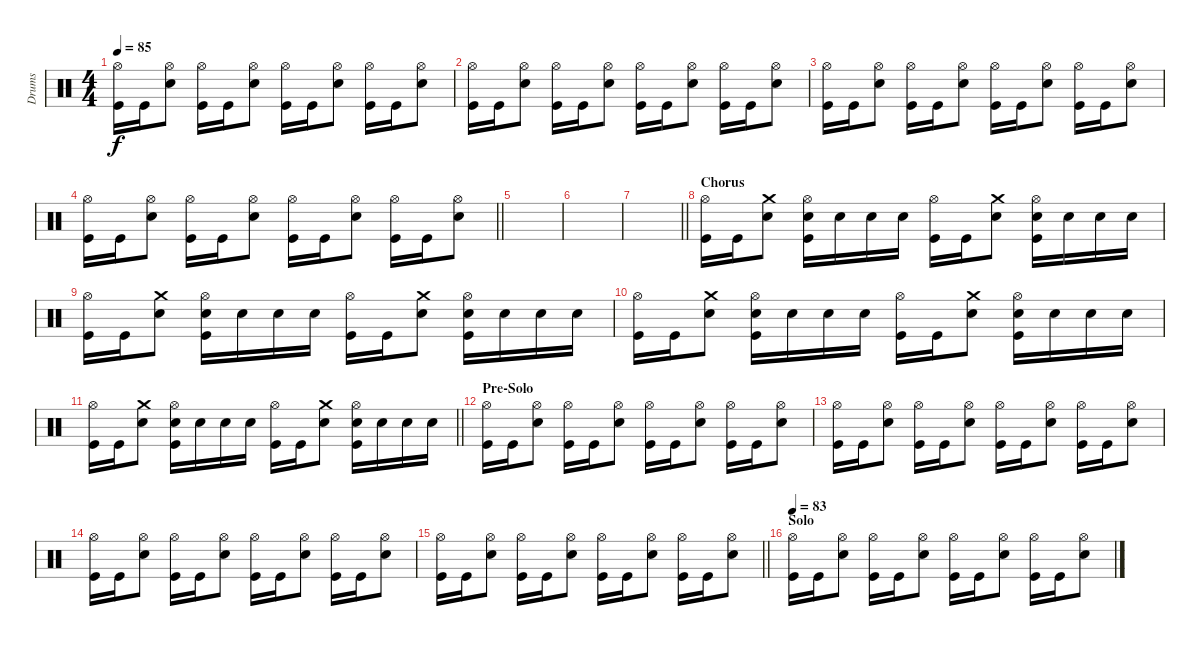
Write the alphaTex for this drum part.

\track ("Drums" "Drums") {instrument percussion}
\staff {score}
\articulation defaults
\ts (4 4)
\tempo 85
\clef neutral
\ks c
("Hi-Hat (open)" "Kick (hit)").16{dy f} "Kick (hit)".16 ("Hi-Hat (open)" "Snare (hit) 2").8 ("Hi-Hat (open)" "Kick (hit)").16 "Kick (hit)".16 ("Hi-Hat (open)" "Snare (hit) 2").8 ("Hi-Hat (open)" "Kick (hit)").16 "Kick (hit)".16 ("Hi-Hat (open)" "Snare (hit) 2").8 ("Hi-Hat (open)" "Kick (hit)").16 "Kick (hit)".16 ("Hi-Hat (open)" "Snare (hit) 2").8 |
("Hi-Hat (open)" "Kick (hit)").16 "Kick (hit)".16 ("Hi-Hat (open)" "Snare (hit) 2").8 ("Hi-Hat (open)" "Kick (hit)").16 "Kick (hit)".16 ("Hi-Hat (open)" "Snare (hit) 2").8 ("Hi-Hat (open)" "Kick (hit)").16 "Kick (hit)".16 ("Hi-Hat (open)" "Snare (hit) 2").8 ("Hi-Hat (open)" "Kick (hit)").16 "Kick (hit)".16 ("Hi-Hat (open)" "Snare (hit) 2").8 |
("Hi-Hat (open)" "Kick (hit)").16 "Kick (hit)".16 ("Hi-Hat (open)" "Snare (hit) 2").8 ("Hi-Hat (open)" "Kick (hit)").16 "Kick (hit)".16 ("Hi-Hat (open)" "Snare (hit) 2").8 ("Hi-Hat (open)" "Kick (hit)").16 "Kick (hit)".16 ("Hi-Hat (open)" "Snare (hit) 2").8 ("Hi-Hat (open)" "Kick (hit)").16 "Kick (hit)".16 ("Hi-Hat (open)" "Snare (hit) 2").8 |
\barLineRight lightlight
("Hi-Hat (open)" "Kick (hit)").16 "Kick (hit)".16 ("Hi-Hat (open)" "Snare (hit) 2").8 ("Hi-Hat (open)" "Kick (hit)").16 "Kick (hit)".16 ("Hi-Hat (open)" "Snare (hit) 2").8 ("Hi-Hat (open)" "Kick (hit)").16 "Kick (hit)".16 ("Hi-Hat (open)" "Snare (hit) 2").8 ("Hi-Hat (open)" "Kick (hit)").16 "Kick (hit)".16 ("Hi-Hat (open)" "Snare (hit) 2").8 |
\section ("" "")
|
|
\barLineRight lightlight
|
\section ("" "Chorus")
("Hi-Hat (open)" "Kick (hit)").16 "Kick (hit)".16 ("Crash medium (hit)" "Snare (hit) 2").8 ("Hi-Hat (open)" "Snare (hit) 2" "Kick (hit)").16 "Snare (hit) 2".16 "Snare (hit) 2".16 "Snare (hit) 2".16 ("Hi-Hat (open)" "Kick (hit)").16 "Kick (hit)".16 ("Crash medium (hit)" "Snare (hit) 2").8 ("Hi-Hat (open)" "Snare (hit) 2" "Kick (hit)").16 "Snare (hit) 2".16 "Snare (hit) 2".16 "Snare (hit) 2".16 |
("Hi-Hat (open)" "Kick (hit)").16 "Kick (hit)".16 ("Crash medium (hit)" "Snare (hit) 2").8 ("Hi-Hat (open)" "Snare (hit) 2" "Kick (hit)").16 "Snare (hit) 2".16 "Snare (hit) 2".16 "Snare (hit) 2".16 ("Hi-Hat (open)" "Kick (hit)").16 "Kick (hit)".16 ("Crash medium (hit)" "Snare (hit) 2").8 ("Hi-Hat (open)" "Snare (hit) 2" "Kick (hit)").16 "Snare (hit) 2".16 "Snare (hit) 2".16 "Snare (hit) 2".16 |
("Hi-Hat (open)" "Kick (hit)").16 "Kick (hit)".16 ("Crash medium (hit)" "Snare (hit) 2").8 ("Hi-Hat (open)" "Snare (hit) 2" "Kick (hit)").16 "Snare (hit) 2".16 "Snare (hit) 2".16 "Snare (hit) 2".16 ("Hi-Hat (open)" "Kick (hit)").16 "Kick (hit)".16 ("Crash medium (hit)" "Snare (hit) 2").8 ("Hi-Hat (open)" "Snare (hit) 2" "Kick (hit)").16 "Snare (hit) 2".16 "Snare (hit) 2".16 "Snare (hit) 2".16 |
\barLineRight lightlight
("Hi-Hat (open)" "Kick (hit)").16 "Kick (hit)".16 ("Crash medium (hit)" "Snare (hit) 2").8 ("Hi-Hat (open)" "Snare (hit) 2" "Kick (hit)").16 "Snare (hit) 2".16 "Snare (hit) 2".16 "Snare (hit) 2".16 ("Hi-Hat (open)" "Kick (hit)").16 "Kick (hit)".16 ("Crash medium (hit)" "Snare (hit) 2").8 ("Hi-Hat (open)" "Snare (hit) 2" "Kick (hit)").16 "Snare (hit) 2".16 "Snare (hit) 2".16 "Snare (hit) 2".16 |
\section ("" "Pre-Solo")
("Hi-Hat (open)" "Kick (hit)").16 "Kick (hit)".16 ("Hi-Hat (open)" "Snare (hit) 2").8 ("Hi-Hat (open)" "Kick (hit)").16 "Kick (hit)".16 ("Hi-Hat (open)" "Snare (hit) 2").8 ("Hi-Hat (open)" "Kick (hit)").16 "Kick (hit)".16 ("Hi-Hat (open)" "Snare (hit) 2").8 ("Hi-Hat (open)" "Kick (hit)").16 "Kick (hit)".16 ("Hi-Hat (open)" "Snare (hit) 2").8 |
("Hi-Hat (open)" "Kick (hit)").16 "Kick (hit)".16 ("Hi-Hat (open)" "Snare (hit) 2").8 ("Hi-Hat (open)" "Kick (hit)").16 "Kick (hit)".16 ("Hi-Hat (open)" "Snare (hit) 2").8 ("Hi-Hat (open)" "Kick (hit)").16 "Kick (hit)".16 ("Hi-Hat (open)" "Snare (hit) 2").8 ("Hi-Hat (open)" "Kick (hit)").16 "Kick (hit)".16 ("Hi-Hat (open)" "Snare (hit) 2").8 |
("Hi-Hat (open)" "Kick (hit)").16 "Kick (hit)".16 ("Hi-Hat (open)" "Snare (hit) 2").8 ("Hi-Hat (open)" "Kick (hit)").16 "Kick (hit)".16 ("Hi-Hat (open)" "Snare (hit) 2").8 ("Hi-Hat (open)" "Kick (hit)").16 "Kick (hit)".16 ("Hi-Hat (open)" "Snare (hit) 2").8 ("Hi-Hat (open)" "Kick (hit)").16 "Kick (hit)".16 ("Hi-Hat (open)" "Snare (hit) 2").8 |
\barLineRight lightlight
("Hi-Hat (open)" "Kick (hit)").16 "Kick (hit)".16 ("Hi-Hat (open)" "Snare (hit) 2").8 ("Hi-Hat (open)" "Kick (hit)").16 "Kick (hit)".16 ("Hi-Hat (open)" "Snare (hit) 2").8 ("Hi-Hat (open)" "Kick (hit)").16 "Kick (hit)".16 ("Hi-Hat (open)" "Snare (hit) 2").8 ("Hi-Hat (open)" "Kick (hit)").16 "Kick (hit)".16 ("Hi-Hat (open)" "Snare (hit) 2").8 |
\section ("" "Solo")
\tempo 83
("Hi-Hat (open)" "Kick (hit)").16 "Kick (hit)".16 ("Hi-Hat (open)" "Snare (hit) 2").8 ("Hi-Hat (open)" "Kick (hit)").16 "Kick (hit)".16 ("Hi-Hat (open)" "Snare (hit) 2").8 ("Hi-Hat (open)" "Kick (hit)").16 "Kick (hit)".16 ("Hi-Hat (open)" "Snare (hit) 2").8 ("Hi-Hat (open)" "Kick (hit)").16 "Kick (hit)".16 ("Hi-Hat (open)" "Snare (hit) 2").8
